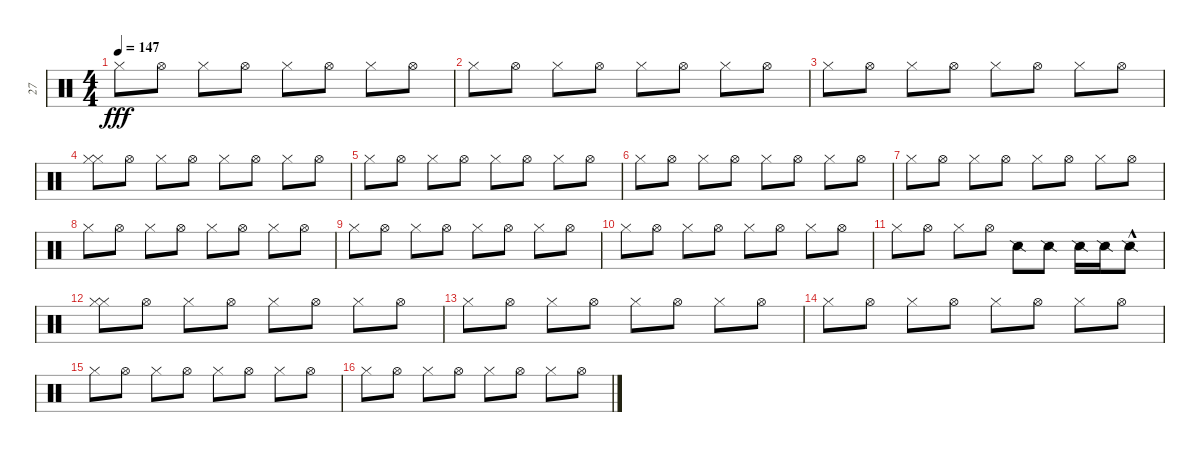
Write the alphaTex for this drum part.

\track ("27" "27") {instrument percussion}
\staff {score}
\articulation defaults
\ts (4 4)
\tempo 147
\clef neutral
\ks c "Hi-Hat (closed)".8{dy fff} "Hi-Hat (open)".8 "Hi-Hat (closed)".8 "Hi-Hat (open)".8 "Hi-Hat (closed)".8 "Hi-Hat (open)".8 "Hi-Hat (closed)".8 "Hi-Hat (open)".8
|
"Hi-Hat (closed)".8 "Hi-Hat (open)".8 "Hi-Hat (closed)".8 "Hi-Hat (open)".8 "Hi-Hat (closed)".8 "Hi-Hat (open)".8 "Hi-Hat (closed)".8 "Hi-Hat (open)".8 |
"Hi-Hat (closed)".8 "Hi-Hat (open)".8 "Hi-Hat (closed)".8 "Hi-Hat (open)".8 "Hi-Hat (closed)".8 "Hi-Hat (open)".8 "Hi-Hat (closed)".8 "Hi-Hat (open)".8 |
("Hi-Hat (closed)" "Hi-Hat (closed)").8 "Hi-Hat (open)".8 "Hi-Hat (closed)".8 "Hi-Hat (open)".8 "Hi-Hat (closed)".8 "Hi-Hat (open)".8 "Hi-Hat (closed)".8 "Hi-Hat (open)".8 |
"Hi-Hat (closed)".8 "Hi-Hat (open)".8 "Hi-Hat (closed)".8 "Hi-Hat (open)".8 "Hi-Hat (closed)".8 "Hi-Hat (open)".8 "Hi-Hat (closed)".8 "Hi-Hat (open)".8 |
"Hi-Hat (closed)".8 "Hi-Hat (open)".8 "Hi-Hat (closed)".8 "Hi-Hat (open)".8 "Hi-Hat (closed)".8 "Hi-Hat (open)".8 "Hi-Hat (closed)".8 "Hi-Hat (open)".8 |
"Hi-Hat (closed)".8 "Hi-Hat (open)".8 "Hi-Hat (closed)".8 "Hi-Hat (open)".8 "Hi-Hat (closed)".8 "Hi-Hat (open)".8 "Hi-Hat (closed)".8 "Hi-Hat (open)".8 |
"Hi-Hat (closed)".8 "Hi-Hat (open)".8 "Hi-Hat (closed)".8 "Hi-Hat (open)".8 "Hi-Hat (closed)".8 "Hi-Hat (open)".8 "Hi-Hat (closed)".8 "Hi-Hat (open)".8 |
"Hi-Hat (closed)".8 "Hi-Hat (open)".8 "Hi-Hat (closed)".8 "Hi-Hat (open)".8 "Hi-Hat (closed)".8 "Hi-Hat (open)".8 "Hi-Hat (closed)".8 "Hi-Hat (open)".8 |
"Hi-Hat (closed)".8 "Hi-Hat (open)".8 "Hi-Hat (closed)".8 "Hi-Hat (open)".8 "Hi-Hat (closed)".8 "Hi-Hat (open)".8 "Hi-Hat (closed)".8 "Hi-Hat (open)".8 |
"Hi-Hat (closed)".8 "Hi-Hat (open)".8 "Hi-Hat (closed)".8 "Hi-Hat (open)".8 "Snare (side stick) 2".8 "Snare (side stick) 2".8 "Snare (side stick) 2".16 "Snare (side stick) 2".16 "Snare (side stick) 2"{hac}.8 |
("Hi-Hat (closed)" "Hi-Hat (closed)").8 "Hi-Hat (open)".8 "Hi-Hat (closed)".8 "Hi-Hat (open)".8 "Hi-Hat (closed)".8 "Hi-Hat (open)".8 "Hi-Hat (closed)".8 "Hi-Hat (open)".8 |
"Hi-Hat (closed)".8 "Hi-Hat (open)".8 "Hi-Hat (closed)".8 "Hi-Hat (open)".8 "Hi-Hat (closed)".8 "Hi-Hat (open)".8 "Hi-Hat (closed)".8 "Hi-Hat (open)".8 |
"Hi-Hat (closed)".8 "Hi-Hat (open)".8 "Hi-Hat (closed)".8 "Hi-Hat (open)".8 "Hi-Hat (closed)".8 "Hi-Hat (open)".8 "Hi-Hat (closed)".8 "Hi-Hat (open)".8 |
"Hi-Hat (closed)".8 "Hi-Hat (open)".8 "Hi-Hat (closed)".8 "Hi-Hat (open)".8 "Hi-Hat (closed)".8 "Hi-Hat (open)".8 "Hi-Hat (closed)".8 "Hi-Hat (open)".8 |
"Hi-Hat (closed)".8 "Hi-Hat (open)".8 "Hi-Hat (closed)".8 "Hi-Hat (open)".8 "Hi-Hat (closed)".8 "Hi-Hat (open)".8 "Hi-Hat (closed)".8 "Hi-Hat (open)".8
